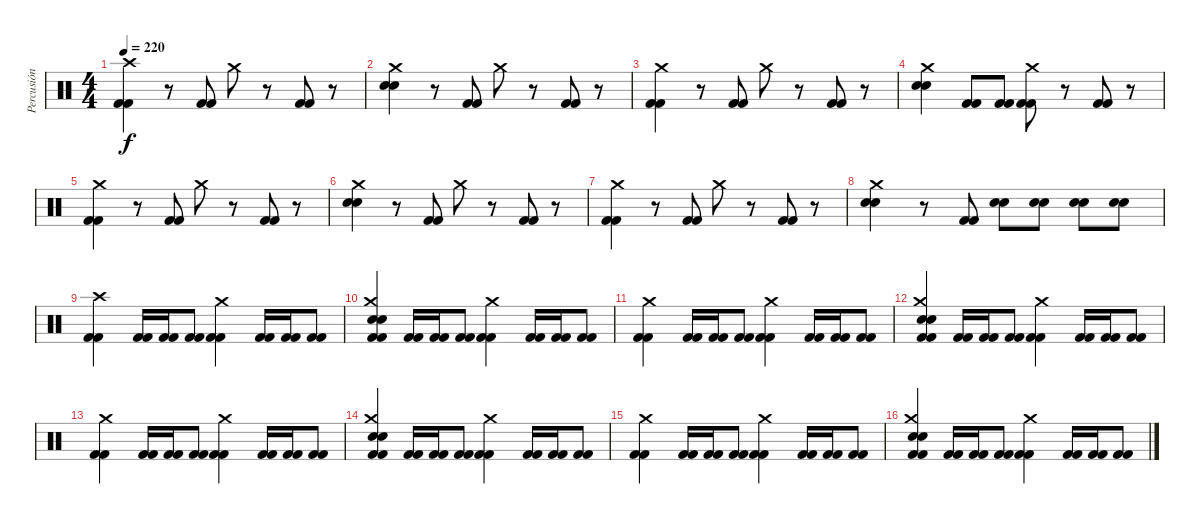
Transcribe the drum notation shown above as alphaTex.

\track ("Percusión" "Percusión") {instrument percussion}
\staff {score}
\articulation defaults
\ts (4 4)
\tempo 220
\clef neutral
\ks c
("Kick (hit) 2" "Kick (hit) 2" "Crash high (hit)").4{dy f} r.8 ("Kick (hit) 2" "Kick (hit) 2").8 "Crash medium (hit)".8 r.8 ("Kick (hit) 2" "Kick (hit) 2").8 r.8 |
("Electric Snare (hit)" "Electric Snare (hit)" "Crash medium (hit)").4 r.8 ("Kick (hit) 2" "Kick (hit) 2").8 "Crash medium (hit)".8 r.8 ("Kick (hit) 2" "Kick (hit) 2").8 r.8 |
("Kick (hit) 2" "Kick (hit) 2" "Crash medium (hit)").4 r.8 ("Kick (hit) 2" "Kick (hit) 2").8 "Crash medium (hit)".8 r.8 ("Kick (hit) 2" "Kick (hit) 2").8 r.8 |
("Electric Snare (hit)" "Electric Snare (hit)" "Crash medium (hit)").4 ("Kick (hit) 2" "Kick (hit) 2").8 ("Kick (hit) 2" "Kick (hit) 2").8 ("Kick (hit) 2" "Kick (hit) 2" "Crash medium (hit)").8 r.8 ("Kick (hit) 2" "Kick (hit) 2").8 r.8 |
("Kick (hit) 2" "Kick (hit) 2" "Crash medium (hit)").4 r.8 ("Kick (hit) 2" "Kick (hit) 2").8 "Crash medium (hit)".8 r.8 ("Kick (hit) 2" "Kick (hit) 2").8 r.8 |
("Electric Snare (hit)" "Electric Snare (hit)" "Crash medium (hit)").4 r.8 ("Kick (hit) 2" "Kick (hit) 2").8 "Crash medium (hit)".8 r.8 ("Kick (hit) 2" "Kick (hit) 2").8 r.8 |
("Kick (hit) 2" "Kick (hit) 2" "Crash medium (hit)").4 r.8 ("Kick (hit) 2" "Kick (hit) 2").8 "Crash medium (hit)".8 r.8 ("Kick (hit) 2" "Kick (hit) 2").8 r.8 |
("Electric Snare (hit)" "Electric Snare (hit)" "Crash medium (hit)").4 r.8 ("Kick (hit) 2" "Kick (hit) 2").8 ("Electric Snare (hit)" "Electric Snare (hit)").8 ("Electric Snare (hit)" "Electric Snare (hit)").8 ("Electric Snare (hit)" "Electric Snare (hit)").8 ("Electric Snare (hit)" "Electric Snare (hit)").8 |
("Kick (hit) 2" "Kick (hit) 2" "Crash high (hit)").4 ("Kick (hit) 2" "Kick (hit) 2").16 ("Kick (hit) 2" "Kick (hit) 2").16 ("Kick (hit) 2" "Kick (hit) 2").8 ("Kick (hit) 2" "Kick (hit) 2" "Crash medium (hit)").4 ("Kick (hit) 2" "Kick (hit) 2").16 ("Kick (hit) 2" "Kick (hit) 2").16 ("Kick (hit) 2" "Kick (hit) 2").8 |
("Kick (hit) 2" "Kick (hit) 2" "Electric Snare (hit)" "Electric Snare (hit)" "Crash medium (hit)").4 ("Kick (hit) 2" "Kick (hit) 2").16 ("Kick (hit) 2" "Kick (hit) 2").16 ("Kick (hit) 2" "Kick (hit) 2").8 ("Kick (hit) 2" "Kick (hit) 2" "Crash medium (hit)").4 ("Kick (hit) 2" "Kick (hit) 2").16 ("Kick (hit) 2" "Kick (hit) 2").16 ("Kick (hit) 2" "Kick (hit) 2").8 |
("Kick (hit) 2" "Kick (hit) 2" "Crash medium (hit)").4 ("Kick (hit) 2" "Kick (hit) 2").16 ("Kick (hit) 2" "Kick (hit) 2").16 ("Kick (hit) 2" "Kick (hit) 2").8 ("Kick (hit) 2" "Kick (hit) 2" "Crash medium (hit)").4 ("Kick (hit) 2" "Kick (hit) 2").16 ("Kick (hit) 2" "Kick (hit) 2").16 ("Kick (hit) 2" "Kick (hit) 2").8 |
("Kick (hit) 2" "Kick (hit) 2" "Electric Snare (hit)" "Electric Snare (hit)" "Crash medium (hit)").4 ("Kick (hit) 2" "Kick (hit) 2").16 ("Kick (hit) 2" "Kick (hit) 2").16 ("Kick (hit) 2" "Kick (hit) 2").8 ("Kick (hit) 2" "Kick (hit) 2" "Crash medium (hit)").4 ("Kick (hit) 2" "Kick (hit) 2").16 ("Kick (hit) 2" "Kick (hit) 2").16 ("Kick (hit) 2" "Kick (hit) 2").8 |
("Kick (hit) 2" "Kick (hit) 2" "Crash medium (hit)").4 ("Kick (hit) 2" "Kick (hit) 2").16 ("Kick (hit) 2" "Kick (hit) 2").16 ("Kick (hit) 2" "Kick (hit) 2").8 ("Kick (hit) 2" "Kick (hit) 2" "Crash medium (hit)").4 ("Kick (hit) 2" "Kick (hit) 2").16 ("Kick (hit) 2" "Kick (hit) 2").16 ("Kick (hit) 2" "Kick (hit) 2").8 |
("Kick (hit) 2" "Kick (hit) 2" "Electric Snare (hit)" "Electric Snare (hit)" "Crash medium (hit)").4 ("Kick (hit) 2" "Kick (hit) 2").16 ("Kick (hit) 2" "Kick (hit) 2").16 ("Kick (hit) 2" "Kick (hit) 2").8 ("Kick (hit) 2" "Kick (hit) 2" "Crash medium (hit)").4 ("Kick (hit) 2" "Kick (hit) 2").16 ("Kick (hit) 2" "Kick (hit) 2").16 ("Kick (hit) 2" "Kick (hit) 2").8 |
("Kick (hit) 2" "Kick (hit) 2" "Crash medium (hit)").4 ("Kick (hit) 2" "Kick (hit) 2").16 ("Kick (hit) 2" "Kick (hit) 2").16 ("Kick (hit) 2" "Kick (hit) 2").8 ("Kick (hit) 2" "Kick (hit) 2" "Crash medium (hit)").4 ("Kick (hit) 2" "Kick (hit) 2").16 ("Kick (hit) 2" "Kick (hit) 2").16 ("Kick (hit) 2" "Kick (hit) 2").8 |
("Kick (hit) 2" "Kick (hit) 2" "Electric Snare (hit)" "Electric Snare (hit)" "Crash medium (hit)").4 ("Kick (hit) 2" "Kick (hit) 2").16 ("Kick (hit) 2" "Kick (hit) 2").16 ("Kick (hit) 2" "Kick (hit) 2").8 ("Kick (hit) 2" "Kick (hit) 2" "Crash medium (hit)").4 ("Kick (hit) 2" "Kick (hit) 2").16 ("Kick (hit) 2" "Kick (hit) 2").16 ("Kick (hit) 2" "Kick (hit) 2").8
